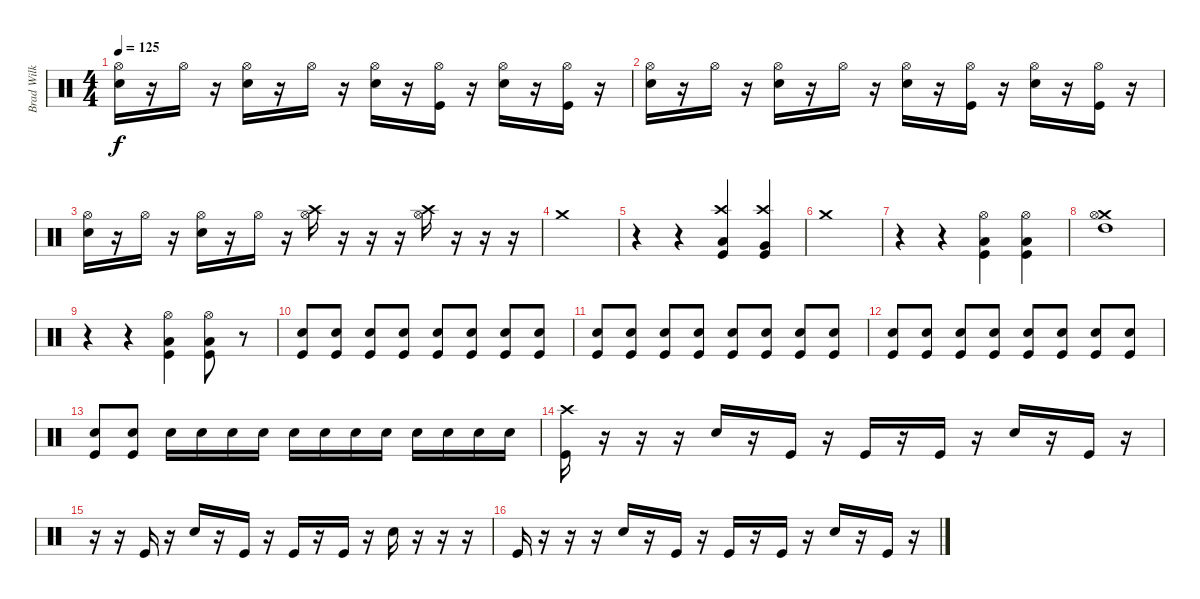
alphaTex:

\track ("Brad Wilk - Drums" "Brad Wilk ") {instrument percussion}
\staff {score}
\articulation defaults
\ts (4 4)
\tempo 125
\clef neutral
\ks c
("Snare (hit) 2" "Hi-Hat (open)").16{dy f} r.16 "Hi-Hat (open)".16 r.16 ("Snare (hit) 2" "Hi-Hat (open)").16 r.16 "Hi-Hat (open)".16 r.16 ("Snare (hit) 2" "Hi-Hat (open)").16 r.16 ("Hi-Hat (open)" "Kick (hit)").16 r.16 ("Snare (hit) 2" "Hi-Hat (open)").16 r.16 ("Hi-Hat (open)" "Kick (hit)").16 r.16 |
("Snare (hit) 2" "Hi-Hat (open)").16 r.16 "Hi-Hat (open)".16 r.16 ("Snare (hit) 2" "Hi-Hat (open)").16 r.16 "Hi-Hat (open)".16 r.16 ("Snare (hit) 2" "Hi-Hat (open)").16 r.16 ("Hi-Hat (open)" "Kick (hit)").16 r.16 ("Snare (hit) 2" "Hi-Hat (open)").16 r.16 ("Hi-Hat (open)" "Kick (hit)").16 r.16 |
("Snare (hit) 2" "Hi-Hat (open)").16 r.16 "Hi-Hat (open)".16 r.16 ("Snare (hit) 2" "Hi-Hat (open)").16 r.16 "Hi-Hat (open)".16 r.16 ("Crash high (hit)" "Hi-Hat (open)").16 r.16 r.16 r.16 ("Crash high (hit)" "Hi-Hat (open)").16 r.16 r.16 r.16 |
"Crash medium (hit)".1 |
r.4 r.4 ("Crash high (hit)" "Low Tom (hit)" "Kick (hit)").4 ("Crash high (hit)" "Very Low Tom (hit)" "Kick (hit)").4 |
"Crash medium (hit)".1 |
r.4 r.4 ("Hi-Hat (open)" "Low Tom (hit)" "Kick (hit)").4 ("Hi-Hat (open)" "Low Floor Tom (hit)" "Kick (hit)").4 |
("Crash medium (hit)" "Hi-Hat (open)" "High Tom (hit)").1 |
r.4 r.4 ("Hi-Hat (open)" "Low Tom (hit)" "Kick (hit)").4 ("Hi-Hat (open)" "Low Floor Tom (hit)" "Kick (hit)").8 r.8{volume 8} |
("Snare (hit) 2" "Kick (hit)").8{volume 16} ("Snare (hit) 2" "Kick (hit)").8 ("Snare (hit) 2" "Kick (hit)").8 ("Snare (hit) 2" "Kick (hit)").8 ("Snare (hit) 2" "Kick (hit)").8 ("Snare (hit) 2" "Kick (hit)").8 ("Snare (hit) 2" "Kick (hit)").8 ("Snare (hit) 2" "Kick (hit)").8 |
("Snare (hit) 2" "Kick (hit)").8 ("Snare (hit) 2" "Kick (hit)").8 ("Snare (hit) 2" "Kick (hit)").8 ("Snare (hit) 2" "Kick (hit)").8 ("Snare (hit) 2" "Kick (hit)").8 ("Snare (hit) 2" "Kick (hit)").8 ("Snare (hit) 2" "Kick (hit)").8 ("Snare (hit) 2" "Kick (hit)").8 |
("Snare (hit) 2" "Kick (hit)").8 ("Snare (hit) 2" "Kick (hit)").8 ("Snare (hit) 2" "Kick (hit)").8 ("Snare (hit) 2" "Kick (hit)").8 ("Snare (hit) 2" "Kick (hit)").8 ("Snare (hit) 2" "Kick (hit)").8 ("Snare (hit) 2" "Kick (hit)").8 ("Snare (hit) 2" "Kick (hit)").8 |
("Snare (hit) 2" "Kick (hit)").8 ("Snare (hit) 2" "Kick (hit)").8 "Snare (hit) 2".16 "Snare (hit) 2".16 "Snare (hit) 2".16 "Snare (hit) 2".16 "Snare (hit) 2".16 "Snare (hit) 2".16 "Snare (hit) 2".16 "Snare (hit) 2".16 "Snare (hit) 2".16 "Snare (hit) 2".16 "Snare (hit) 2".16 "Snare (hit) 2".16 |
("Crash high (hit)" "Kick (hit)").16 r.16 r.16 r.16 "Snare (hit) 2".16 r.16 "Kick (hit)".16 r.16 "Kick (hit)".16 r.16 "Kick (hit)".16 r.16 "Snare (hit) 2".16 r.16 "Kick (hit)".16 r.16 |
r.16 r.16 "Kick (hit)".16 r.16 "Snare (hit) 2".16 r.16 "Kick (hit)".16 r.16 "Kick (hit)".16 r.16 "Kick (hit)".16 r.16 "Snare (hit) 2".16 r.16 r.16 r.16 |
"Kick (hit)".16 r.16 r.16 r.16 "Snare (hit) 2".16 r.16 "Kick (hit)".16 r.16 "Kick (hit)".16 r.16 "Kick (hit)".16 r.16 "Snare (hit) 2".16 r.16 "Kick (hit)".16 r.16
